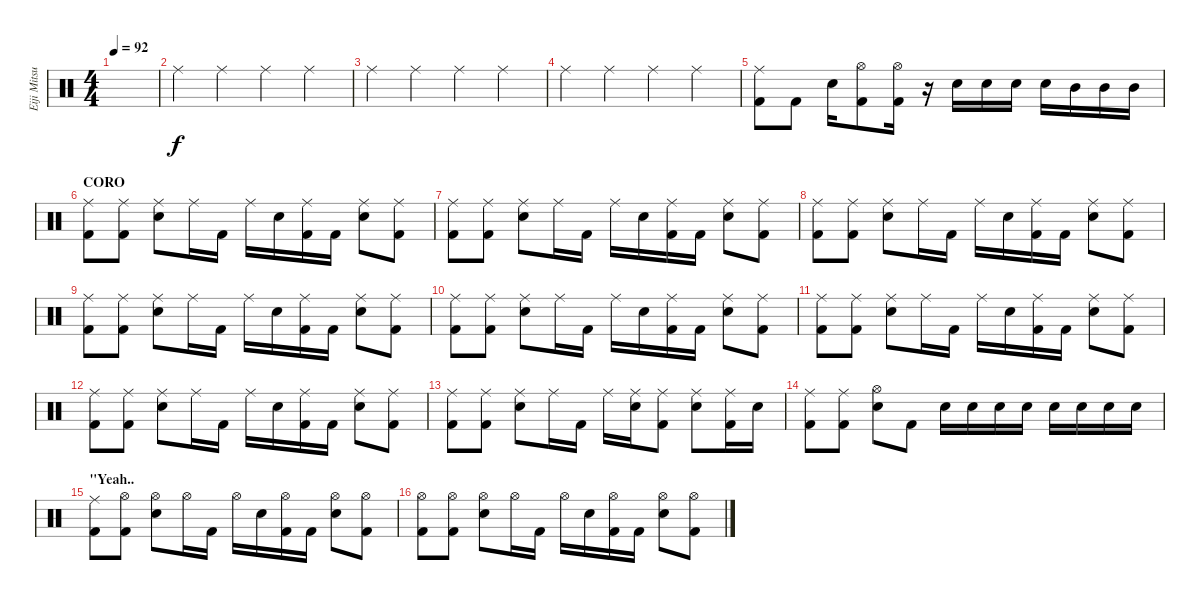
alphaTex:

\track ("Eiji Mitsuzono " "Eiji Mitsu") {instrument percussion}
\staff {score}
\articulation defaults
\ts (4 4)
\tempo 92
\clef neutral
\ks c
|
"Ride (middle)".4 "Ride (middle)".4 "Ride (middle)".4 "Ride (middle)".4 |
"Ride (middle)".4 "Ride (middle)".4 "Ride (middle)".4 "Ride (middle)".4 |
"Ride (middle)".4 "Ride (middle)".4 "Ride (middle)".4 "Ride (middle)".4 |
("Ride (middle)" "Kick (hit) 2").8 "Kick (hit) 2".8 "Snare (hit) 2".16 ("Hi-Hat (open)" "Kick (hit) 2").8 ("Hi-Hat (open)" "Kick (hit) 2").16 r.16 "Snare (hit) 2".16 "Snare (hit) 2".16 "Snare (hit) 2".16 "Snare (hit) 2".16 "Mid Tom (hit)".16 "Mid Tom (hit)".16 "Mid Tom (hit)".16 |
\section ("" "CORO")
("Ride (middle)" "Kick (hit) 2").8 ("Ride (middle)" "Kick (hit) 2").8 ("Ride (middle)" "Snare (hit) 2").8 "Ride (middle)".16 "Kick (hit) 2".16 "Ride (middle)".16 "Snare (hit) 2".16 ("Ride (middle)" "Kick (hit) 2").16 "Kick (hit) 2".16 ("Ride (middle)" "Snare (hit) 2").8 ("Ride (middle)" "Kick (hit) 2").8 |
("Ride (middle)" "Kick (hit) 2").8 ("Ride (middle)" "Kick (hit) 2").8 ("Ride (middle)" "Snare (hit) 2").8 "Ride (middle)".16 "Kick (hit) 2".16 "Ride (middle)".16 "Snare (hit) 2".16 ("Ride (middle)" "Kick (hit) 2").16 "Kick (hit) 2".16 ("Ride (middle)" "Snare (hit) 2").8 ("Ride (middle)" "Kick (hit) 2").8 |
("Ride (middle)" "Kick (hit) 2").8 ("Ride (middle)" "Kick (hit) 2").8 ("Ride (middle)" "Snare (hit) 2").8 "Ride (middle)".16 "Kick (hit) 2".16 "Ride (middle)".16 "Snare (hit) 2".16 ("Ride (middle)" "Kick (hit) 2").16 "Kick (hit) 2".16 ("Ride (middle)" "Snare (hit) 2").8 ("Ride (middle)" "Kick (hit) 2").8 |
("Ride (middle)" "Kick (hit) 2").8 ("Ride (middle)" "Kick (hit) 2").8 ("Ride (middle)" "Snare (hit) 2").8 "Ride (middle)".16 "Kick (hit) 2".16 "Ride (middle)".16 "Snare (hit) 2".16 ("Ride (middle)" "Kick (hit) 2").16 "Kick (hit) 2".16 ("Ride (middle)" "Snare (hit) 2").8 ("Ride (middle)" "Kick (hit) 2").8 |
("Ride (middle)" "Kick (hit) 2").8 ("Ride (middle)" "Kick (hit) 2").8 ("Ride (middle)" "Snare (hit) 2").8 "Ride (middle)".16 "Kick (hit) 2".16 "Ride (middle)".16 "Snare (hit) 2".16 ("Ride (middle)" "Kick (hit) 2").16 "Kick (hit) 2".16 ("Ride (middle)" "Snare (hit) 2").8 ("Ride (middle)" "Kick (hit) 2").8 |
("Ride (middle)" "Kick (hit) 2").8 ("Ride (middle)" "Kick (hit) 2").8 ("Ride (middle)" "Snare (hit) 2").8 "Ride (middle)".16 "Kick (hit) 2".16 "Ride (middle)".16 "Snare (hit) 2".16 ("Ride (middle)" "Kick (hit) 2").16 "Kick (hit) 2".16 ("Ride (middle)" "Snare (hit) 2").8 ("Ride (middle)" "Kick (hit) 2").8 |
("Ride (middle)" "Kick (hit) 2").8 ("Ride (middle)" "Kick (hit) 2").8 ("Ride (middle)" "Snare (hit) 2").8 "Ride (middle)".16 "Kick (hit) 2".16 "Ride (middle)".16 "Snare (hit) 2".16 ("Ride (middle)" "Kick (hit) 2").16 "Kick (hit) 2".16 ("Ride (middle)" "Snare (hit) 2").8 ("Ride (middle)" "Kick (hit) 2").8 |
("Ride (middle)" "Kick (hit) 2").8 ("Ride (middle)" "Kick (hit) 2").8 ("Ride (middle)" "Snare (hit) 2").8 "Ride (middle)".16 "Kick (hit) 2".16 "Ride (middle)".16 ("Ride (middle)" "Snare (hit) 2").16 ("Ride (middle)" "Kick (hit) 2").8 ("Ride (middle)" "Snare (hit) 2").8 ("Ride (middle)" "Kick (hit) 2").16 "Snare (hit) 2".16 |
("Ride (middle)" "Kick (hit) 2").8 ("Ride (middle)" "Kick (hit) 2").8 ("Hi-Hat (open)" "Snare (hit) 2").8 "Kick (hit) 2".8 "Snare (hit) 2".16 "Snare (hit) 2".16 "Snare (hit) 2".16 "Snare (hit) 2".16 "Snare (hit) 2".16 "Snare (hit) 2".16 "Snare (hit) 2".16 "Snare (hit) 2".16 |
\section ("" "\"Yeah..")
("Ride (middle)" "Kick (hit) 2").8 ("Hi-Hat (open)" "Kick (hit) 2").8 ("Hi-Hat (open)" "Snare (hit) 2").8 "Hi-Hat (open)".16 "Kick (hit) 2".16 "Hi-Hat (open)".16 "Snare (hit) 2".16 ("Hi-Hat (open)" "Kick (hit) 2").16 "Kick (hit) 2".16 ("Hi-Hat (open)" "Snare (hit) 2").8 ("Hi-Hat (open)" "Kick (hit) 2").8 |
("Hi-Hat (open)" "Kick (hit) 2").8 ("Hi-Hat (open)" "Kick (hit) 2").8 ("Hi-Hat (open)" "Snare (hit) 2").8 "Hi-Hat (open)".16 "Kick (hit) 2".16 "Hi-Hat (open)".16 "Snare (hit) 2".16 ("Hi-Hat (open)" "Kick (hit) 2").16 "Kick (hit) 2".16 ("Hi-Hat (open)" "Snare (hit) 2").8 ("Hi-Hat (open)" "Kick (hit) 2").8
